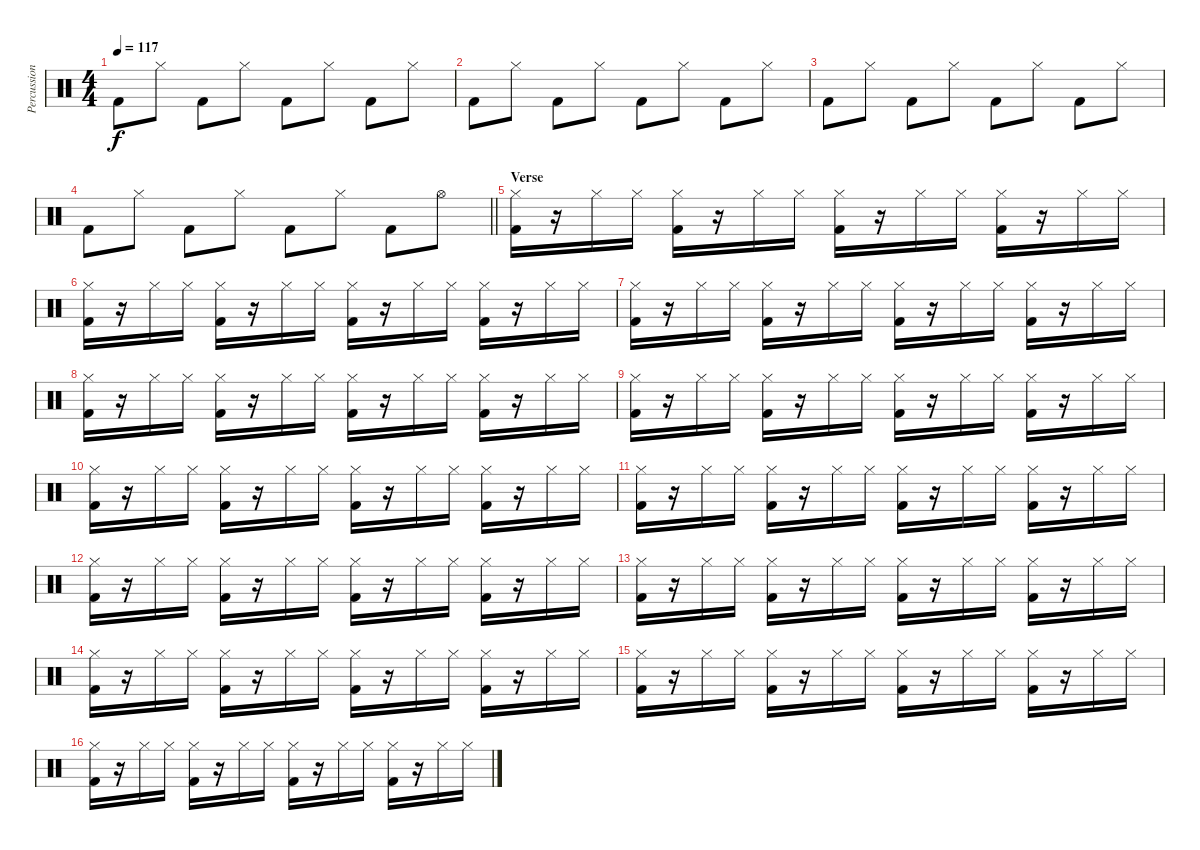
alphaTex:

\track ("Percussion" "Percussion") {instrument percussion}
\staff {score}
\articulation defaults
\ts (4 4)
\tempo 117
\clef neutral
\ks c "Kick (hit) 2".8{dy f} "Hi-Hat (closed)".8 "Kick (hit) 2".8 "Hi-Hat (closed)".8 "Kick (hit) 2".8 "Hi-Hat (closed)".8 "Kick (hit) 2".8 "Hi-Hat (closed)".8
|
"Kick (hit) 2".8 "Hi-Hat (closed)".8 "Kick (hit) 2".8 "Hi-Hat (closed)".8 "Kick (hit) 2".8 "Hi-Hat (closed)".8 "Kick (hit) 2".8 "Hi-Hat (closed)".8 |
"Kick (hit) 2".8 "Hi-Hat (closed)".8 "Kick (hit) 2".8 "Hi-Hat (closed)".8 "Kick (hit) 2".8 "Hi-Hat (closed)".8 "Kick (hit) 2".8 "Hi-Hat (closed)".8 |
\barLineRight lightlight "Kick (hit) 2".8 "Hi-Hat (closed)".8 "Kick (hit) 2".8 "Hi-Hat (closed)".8 "Kick (hit) 2".8 "Hi-Hat (closed)".8 "Kick (hit) 2".8 "Hi-Hat (open)".8
|
\section ("" "Verse")
("Hi-Hat (closed)" "Kick (hit) 2").16 r.16 "Hi-Hat (closed)".16 "Hi-Hat (closed)".16 ("Hi-Hat (closed)" "Kick (hit) 2").16 r.16 "Hi-Hat (closed)".16 "Hi-Hat (closed)".16 ("Hi-Hat (closed)" "Kick (hit) 2").16 r.16 "Hi-Hat (closed)".16 "Hi-Hat (closed)".16 ("Hi-Hat (closed)" "Kick (hit) 2").16 r.16 "Hi-Hat (closed)".16 "Hi-Hat (closed)".16 |
("Hi-Hat (closed)" "Kick (hit) 2").16 r.16 "Hi-Hat (closed)".16 "Hi-Hat (closed)".16 ("Hi-Hat (closed)" "Kick (hit) 2").16 r.16 "Hi-Hat (closed)".16 "Hi-Hat (closed)".16 ("Hi-Hat (closed)" "Kick (hit) 2").16 r.16 "Hi-Hat (closed)".16 "Hi-Hat (closed)".16 ("Hi-Hat (closed)" "Kick (hit) 2").16 r.16 "Hi-Hat (closed)".16 "Hi-Hat (closed)".16 |
("Hi-Hat (closed)" "Kick (hit) 2").16 r.16 "Hi-Hat (closed)".16 "Hi-Hat (closed)".16 ("Hi-Hat (closed)" "Kick (hit) 2").16 r.16 "Hi-Hat (closed)".16 "Hi-Hat (closed)".16 ("Hi-Hat (closed)" "Kick (hit) 2").16 r.16 "Hi-Hat (closed)".16 "Hi-Hat (closed)".16 ("Hi-Hat (closed)" "Kick (hit) 2").16 r.16 "Hi-Hat (closed)".16 "Hi-Hat (closed)".16 |
("Hi-Hat (closed)" "Kick (hit) 2").16 r.16 "Hi-Hat (closed)".16 "Hi-Hat (closed)".16 ("Hi-Hat (closed)" "Kick (hit) 2").16 r.16 "Hi-Hat (closed)".16 "Hi-Hat (closed)".16 ("Hi-Hat (closed)" "Kick (hit) 2").16 r.16 "Hi-Hat (closed)".16 "Hi-Hat (closed)".16 ("Hi-Hat (closed)" "Kick (hit) 2").16 r.16 "Hi-Hat (closed)".16 "Hi-Hat (closed)".16 |
("Hi-Hat (closed)" "Kick (hit) 2").16 r.16 "Hi-Hat (closed)".16 "Hi-Hat (closed)".16 ("Hi-Hat (closed)" "Kick (hit) 2").16 r.16 "Hi-Hat (closed)".16 "Hi-Hat (closed)".16 ("Hi-Hat (closed)" "Kick (hit) 2").16 r.16 "Hi-Hat (closed)".16 "Hi-Hat (closed)".16 ("Hi-Hat (closed)" "Kick (hit) 2").16 r.16 "Hi-Hat (closed)".16 "Hi-Hat (closed)".16 |
("Hi-Hat (closed)" "Kick (hit) 2").16 r.16 "Hi-Hat (closed)".16 "Hi-Hat (closed)".16 ("Hi-Hat (closed)" "Kick (hit) 2").16 r.16 "Hi-Hat (closed)".16 "Hi-Hat (closed)".16 ("Hi-Hat (closed)" "Kick (hit) 2").16 r.16 "Hi-Hat (closed)".16 "Hi-Hat (closed)".16 ("Hi-Hat (closed)" "Kick (hit) 2").16 r.16 "Hi-Hat (closed)".16 "Hi-Hat (closed)".16 |
("Hi-Hat (closed)" "Kick (hit) 2").16 r.16 "Hi-Hat (closed)".16 "Hi-Hat (closed)".16 ("Hi-Hat (closed)" "Kick (hit) 2").16 r.16 "Hi-Hat (closed)".16 "Hi-Hat (closed)".16 ("Hi-Hat (closed)" "Kick (hit) 2").16 r.16 "Hi-Hat (closed)".16 "Hi-Hat (closed)".16 ("Hi-Hat (closed)" "Kick (hit) 2").16 r.16 "Hi-Hat (closed)".16 "Hi-Hat (closed)".16 |
("Hi-Hat (closed)" "Kick (hit) 2").16 r.16 "Hi-Hat (closed)".16 "Hi-Hat (closed)".16 ("Hi-Hat (closed)" "Kick (hit) 2").16 r.16 "Hi-Hat (closed)".16 "Hi-Hat (closed)".16 ("Hi-Hat (closed)" "Kick (hit) 2").16 r.16 "Hi-Hat (closed)".16 "Hi-Hat (closed)".16 ("Hi-Hat (closed)" "Kick (hit) 2").16 r.16 "Hi-Hat (closed)".16 "Hi-Hat (closed)".16 |
("Hi-Hat (closed)" "Kick (hit) 2").16 r.16 "Hi-Hat (closed)".16 "Hi-Hat (closed)".16 ("Hi-Hat (closed)" "Kick (hit) 2").16 r.16 "Hi-Hat (closed)".16 "Hi-Hat (closed)".16 ("Hi-Hat (closed)" "Kick (hit) 2").16 r.16 "Hi-Hat (closed)".16 "Hi-Hat (closed)".16 ("Hi-Hat (closed)" "Kick (hit) 2").16 r.16 "Hi-Hat (closed)".16 "Hi-Hat (closed)".16 |
("Hi-Hat (closed)" "Kick (hit) 2").16 r.16 "Hi-Hat (closed)".16 "Hi-Hat (closed)".16 ("Hi-Hat (closed)" "Kick (hit) 2").16 r.16 "Hi-Hat (closed)".16 "Hi-Hat (closed)".16 ("Hi-Hat (closed)" "Kick (hit) 2").16 r.16 "Hi-Hat (closed)".16 "Hi-Hat (closed)".16 ("Hi-Hat (closed)" "Kick (hit) 2").16 r.16 "Hi-Hat (closed)".16 "Hi-Hat (closed)".16 |
("Hi-Hat (closed)" "Kick (hit) 2").16 r.16 "Hi-Hat (closed)".16 "Hi-Hat (closed)".16 ("Hi-Hat (closed)" "Kick (hit) 2").16 r.16 "Hi-Hat (closed)".16 "Hi-Hat (closed)".16 ("Hi-Hat (closed)" "Kick (hit) 2").16 r.16 "Hi-Hat (closed)".16 "Hi-Hat (closed)".16 ("Hi-Hat (closed)" "Kick (hit) 2").16 r.16 "Hi-Hat (closed)".16 "Hi-Hat (closed)".16 |
("Hi-Hat (closed)" "Kick (hit) 2").16 r.16 "Hi-Hat (closed)".16 "Hi-Hat (closed)".16 ("Hi-Hat (closed)" "Kick (hit) 2").16 r.16 "Hi-Hat (closed)".16 "Hi-Hat (closed)".16 ("Hi-Hat (closed)" "Kick (hit) 2").16 r.16 "Hi-Hat (closed)".16 "Hi-Hat (closed)".16 ("Hi-Hat (closed)" "Kick (hit) 2").16 r.16 "Hi-Hat (closed)".16 "Hi-Hat (closed)".16
